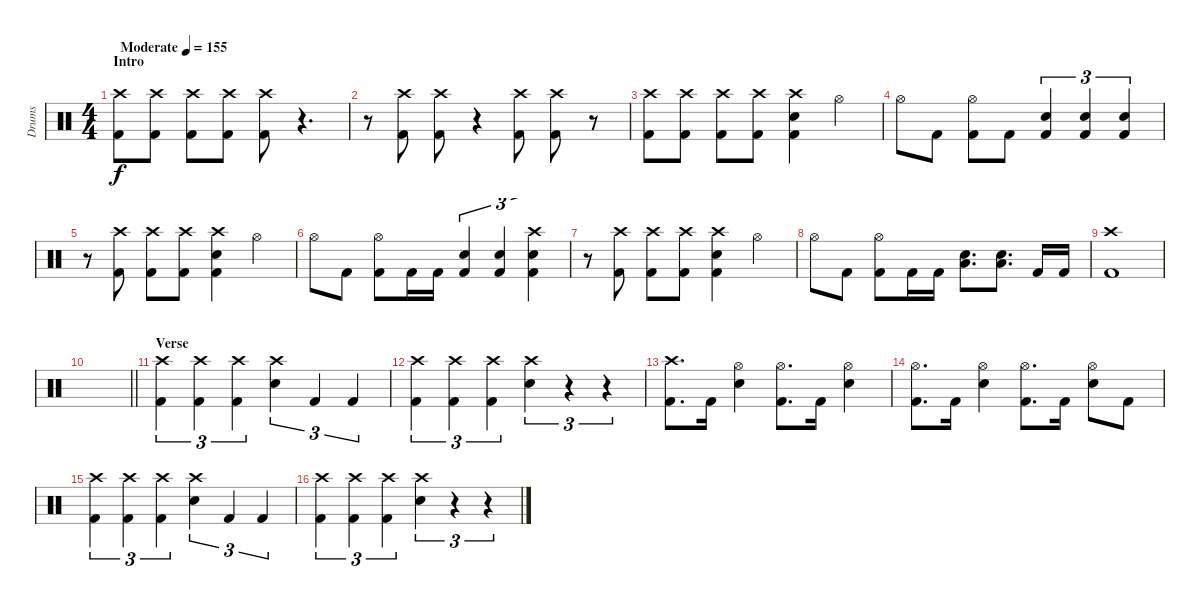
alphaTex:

\track ("Drums" "Drums") {instrument percussion}
\staff {score}
\articulation defaults
\ts (4 4)
\section ("" "Intro")
\tempo (155 "Moderate")
\clef neutral
\ks c
("Crash high (hit)" "Kick (hit) 2").8{dy f} ("Crash high (hit)" "Kick (hit) 2").8 ("Crash high (hit)" "Kick (hit) 2").8 ("Crash high (hit)" "Kick (hit) 2").8 ("Crash high (hit)" "Kick (hit) 2").8 r.4{d} |
r.8 ("Crash high (hit)" "Kick (hit) 2").8 ("Crash high (hit)" "Kick (hit) 2").8 r.4 ("Crash high (hit)" "Kick (hit) 2").8 ("Crash high (hit)" "Kick (hit) 2").8 r.8 |
("Crash high (hit)" "Kick (hit) 2").8 ("Crash high (hit)" "Kick (hit) 2").8 ("Crash high (hit)" "Kick (hit) 2").8 ("Crash high (hit)" "Kick (hit) 2").8 ("Crash high (hit)" "Snare (hit) 2" "Kick (hit) 2").4 "Hi-Hat (open)".4 |
"Hi-Hat (open)".8 "Kick (hit) 2".8 ("Hi-Hat (open)" "Kick (hit) 2").8 "Kick (hit) 2".8 ("Snare (hit) 2" "Kick (hit) 2").4{tu (3 2)} ("Snare (hit) 2" "Kick (hit) 2").4{tu (3 2)} ("Snare (hit) 2" "Kick (hit) 2").4{tu (3 2)} |
r.8 ("Crash high (hit)" "Kick (hit) 2").8 ("Crash high (hit)" "Kick (hit) 2").8 ("Crash high (hit)" "Kick (hit) 2").8 ("Crash high (hit)" "Snare (hit) 2" "Kick (hit) 2").4 "Hi-Hat (open)".4 |
"Hi-Hat (open)".8 "Kick (hit) 2".8 ("Hi-Hat (open)" "Kick (hit) 2").8 "Kick (hit) 2".16 "Kick (hit) 2".16 ("Snare (hit) 2" "Kick (hit) 2").4{tu (3 2)} ("Snare (hit) 2" "Kick (hit) 2").4{tu (3 2)} ("Crash high (hit)" "Snare (hit) 2" "Kick (hit) 2").4{tu (3 2)} |
r.8 ("Crash high (hit)" "Kick (hit) 2").8 ("Crash high (hit)" "Kick (hit) 2").8 ("Crash high (hit)" "Kick (hit) 2").8 ("Crash high (hit)" "Snare (hit) 2" "Kick (hit) 2").4 "Hi-Hat (open)".4 |
"Hi-Hat (open)".8 "Kick (hit) 2".8 ("Hi-Hat (open)" "Kick (hit) 2").8 "Kick (hit) 2".16 "Kick (hit) 2".16 ("Snare (hit) 2" "Low Floor Tom (hit)").8{d} ("Snare (hit) 2" "Low Floor Tom (hit)").8{d} "Kick (hit) 2".16 "Kick (hit) 2".16 |
("Crash high (hit)" "Kick (hit) 2").1 |
\barLineRight lightlight
|
\section ("" "Verse")
("Crash high (hit)" "Kick (hit) 2").4{tu (3 2)} ("Crash high (hit)" "Kick (hit) 2").4{tu (3 2)} ("Crash high (hit)" "Kick (hit) 2").4{tu (3 2)} ("Crash high (hit)" "Snare (hit) 2").4{tu (3 2)} "Kick (hit) 2".4{tu (3 2)} "Kick (hit) 2".4{tu (3 2)} |
("Crash high (hit)" "Kick (hit) 2").4{tu (3 2)} ("Crash high (hit)" "Kick (hit) 2").4{tu (3 2)} ("Crash high (hit)" "Kick (hit) 2").4{tu (3 2)} ("Crash high (hit)" "Snare (hit) 2").4{tu (3 2)} r.4{tu (3 2)} r.4{tu (3 2)} |
("Crash high (hit)" "Kick (hit) 2").8{d} "Kick (hit) 2".16 ("Hi-Hat (open)" "Snare (hit) 2").4 ("Hi-Hat (open)" "Kick (hit) 2").8{d} "Kick (hit) 2".16 ("Hi-Hat (open)" "Snare (hit) 2").4 |
("Hi-Hat (open)" "Kick (hit) 2").8{d} "Kick (hit) 2".16 ("Hi-Hat (open)" "Snare (hit) 2").4 ("Hi-Hat (open)" "Kick (hit) 2").8{d} "Kick (hit) 2".16 ("Hi-Hat (open)" "Snare (hit) 2").8 "Kick (hit) 2".8 |
("Crash high (hit)" "Kick (hit) 2").4{tu (3 2)} ("Crash high (hit)" "Kick (hit) 2").4{tu (3 2)} ("Crash high (hit)" "Kick (hit) 2").4{tu (3 2)} ("Crash high (hit)" "Snare (hit) 2").4{tu (3 2)} "Kick (hit) 2".4{tu (3 2)} "Kick (hit) 2".4{tu (3 2)} |
("Crash high (hit)" "Kick (hit) 2").4{tu (3 2)} ("Crash high (hit)" "Kick (hit) 2").4{tu (3 2)} ("Crash high (hit)" "Kick (hit) 2").4{tu (3 2)} ("Crash high (hit)" "Snare (hit) 2").4{tu (3 2)} r.4{tu (3 2)} r.4{tu (3 2)}
